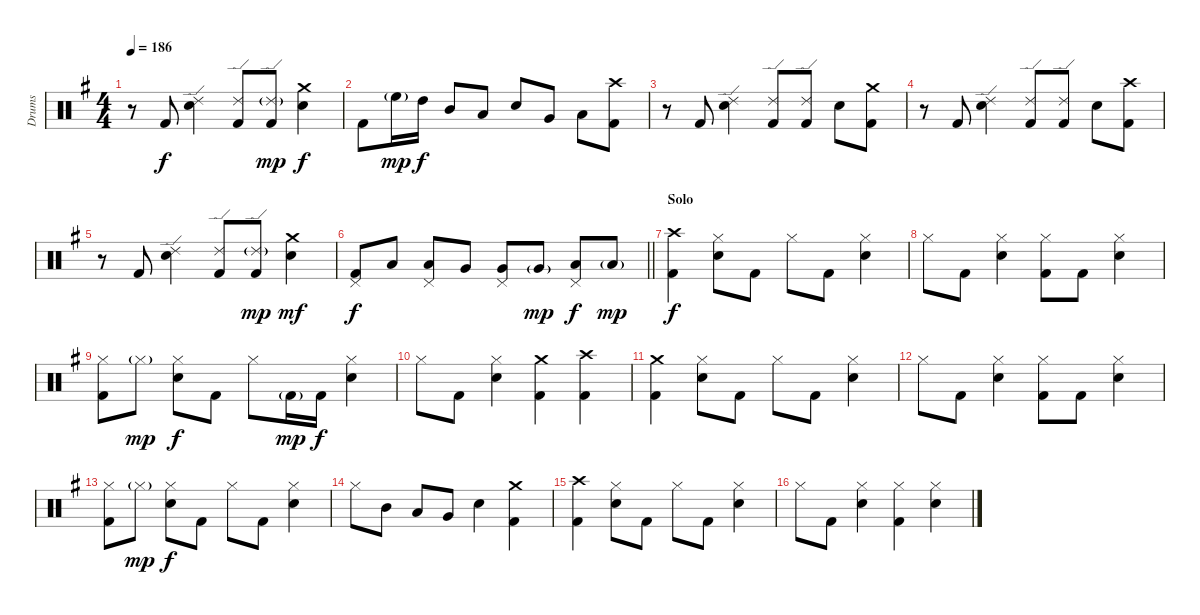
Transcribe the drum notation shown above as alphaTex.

\track ("Drums" "Drums") {instrument percussion}
\staff {score}
\articulation defaults
\ts (4 4)
\tempo 186
\clef neutral
\ks g
r.8{dy f} "Kick (hit) 2".8 ("Ride (edge) 2" "Snare (hit) 2").4 ("Ride (edge) 2" "Kick (hit) 2").8 ("Ride (edge) 2"{g} "Kick (hit) 2").8{dy mp} ("Crash medium (hit)" "Snare (hit) 2").4{dy f} |
"Kick (hit) 2".8 "High Floor Tom (hit)"{g}.16{dy mp} "High Tom (hit)".16{dy f} "Mid Tom (hit)".8 "Low Tom (hit)".8 "Snare (hit) 2".8 "Very Low Tom (hit)".8 "Low Floor Tom (hit)".8 ("Crash high (hit)" "Kick (hit) 2").8 |
r.8 "Kick (hit) 2".8 ("Ride (edge) 2" "Snare (hit) 2").4 ("Ride (edge) 2" "Kick (hit) 2").8 ("Ride (edge) 2" "Kick (hit) 2").8 "Snare (hit) 2".8 ("Crash medium (hit)" "Kick (hit) 2").8 |
r.8 "Kick (hit) 2".8 ("Ride (edge) 2" "Snare (hit) 2").4 ("Ride (edge) 2" "Kick (hit) 2").8 ("Ride (edge) 2" "Kick (hit) 2").8 "Snare (hit) 2".8 ("Crash high (hit)" "Kick (hit) 2").8 |
r.8 "Kick (hit) 2".8 ("Ride (edge) 2" "Snare (hit) 2").4 ("Ride (edge) 2" "Kick (hit) 2").8 ("Ride (edge) 2"{g} "Kick (hit) 2").8{dy mp} ("Crash medium (hit)" "Snare (hit) 2").4{dy mf} |
\barLineRight lightlight
("Pedal Hi-Hat (hit)" "Kick (hit) 2").8{dy f} "Low Tom (hit)".8 ("Pedal Hi-Hat (hit)" "Low Tom (hit)").8 "Very Low Tom (hit)".8 ("Pedal Hi-Hat (hit)" "Very Low Tom (hit)").8 "Very Low Tom (hit)"{g}.8{dy mp} ("Pedal Hi-Hat (hit)" "Low Floor Tom (hit)").8{dy f} "Low Floor Tom (hit)"{g}.8{dy mp} |
\section ("" "Solo")
("Crash high (hit)" "Kick (hit) 2").4{dy f} ("Hi-Hat (closed)" "Snare (hit) 2").8 "Kick (hit) 2".8 "Hi-Hat (closed)".8 "Kick (hit) 2".8 ("Hi-Hat (closed)" "Snare (hit) 2").4 |
"Hi-Hat (closed)".8 "Kick (hit) 2".8 ("Hi-Hat (closed)" "Snare (hit) 2").4 ("Hi-Hat (closed)" "Kick (hit) 2").8 "Kick (hit) 2".8 ("Hi-Hat (closed)" "Snare (hit) 2").4 |
("Hi-Hat (closed)" "Kick (hit) 2").8 "Hi-Hat (closed)"{g}.8{dy mp} ("Hi-Hat (closed)" "Snare (hit) 2").8{dy f} "Kick (hit) 2".8 "Hi-Hat (closed)".8 "Kick (hit) 2"{g}.16{dy mp} "Kick (hit) 2".16{dy f} ("Hi-Hat (closed)" "Snare (hit) 2").4 |
"Hi-Hat (closed)".8 "Kick (hit) 2".8 ("Hi-Hat (closed)" "Snare (hit) 2").4 ("Crash medium (hit)" "Kick (hit) 2").4 ("Crash high (hit)" "Kick (hit) 2").4 |
("Crash medium (hit)" "Kick (hit) 2").4 ("Hi-Hat (closed)" "Snare (hit) 2").8 "Kick (hit) 2".8 "Hi-Hat (closed)".8 "Kick (hit) 2".8 ("Hi-Hat (closed)" "Snare (hit) 2").4 |
"Hi-Hat (closed)".8 "Kick (hit) 2".8 ("Hi-Hat (closed)" "Snare (hit) 2").4 ("Hi-Hat (closed)" "Kick (hit) 2").8 "Kick (hit) 2".8 ("Hi-Hat (closed)" "Snare (hit) 2").4 |
("Hi-Hat (closed)" "Kick (hit) 2").8 "Hi-Hat (closed)"{g}.8{dy mp} ("Hi-Hat (closed)" "Snare (hit) 2").8{dy f} "Kick (hit) 2".8 "Hi-Hat (closed)".8 "Kick (hit) 2".8 ("Hi-Hat (closed)" "Snare (hit) 2").4 |
"Hi-Hat (closed)".8 "Mid Tom (hit)".8 "Low Tom (hit)".8 "Very Low Tom (hit)".8 "Snare (hit) 2".4 ("Crash medium (hit)" "Kick (hit) 2").4 |
("Crash high (hit)" "Kick (hit) 2").4 ("Hi-Hat (closed)" "Snare (hit) 2").8 "Kick (hit) 2".8 "Hi-Hat (closed)".8 "Kick (hit) 2".8 ("Hi-Hat (closed)" "Snare (hit) 2").4 |
"Hi-Hat (closed)".8 "Kick (hit) 2".8 ("Hi-Hat (closed)" "Snare (hit) 2").4 ("Hi-Hat (closed)" "Kick (hit) 2").4 ("Hi-Hat (closed)" "Snare (hit) 2").4
